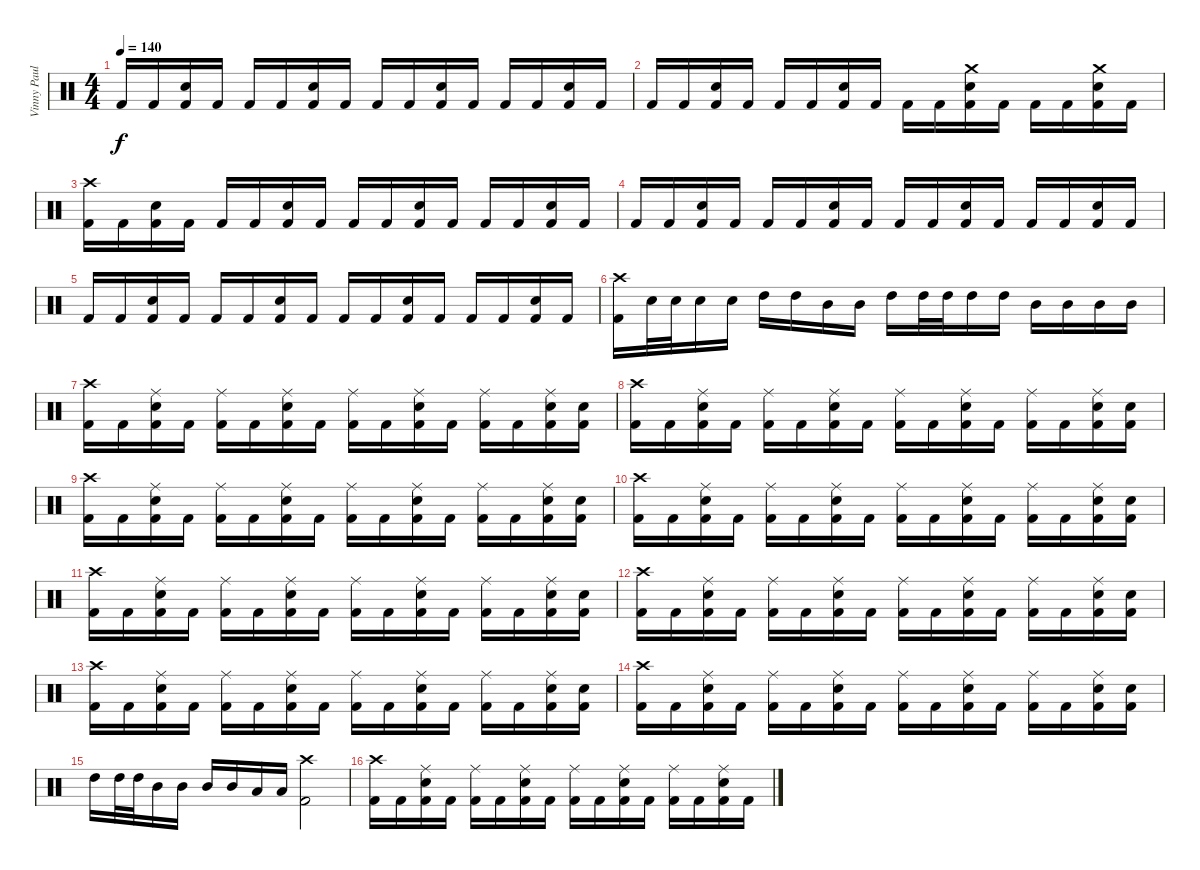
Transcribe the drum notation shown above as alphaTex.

\track ("Vinny Paul" "Vinny Paul") {instrument percussion}
\staff {score}
\articulation defaults
\ts (4 4)
\tempo 140
\clef neutral
\ks c "Kick (hit) 2".16{dy f} "Kick (hit) 2".16
("Snare (hit) 2" "Kick (hit) 2").16 "Kick (hit) 2".16 "Kick (hit) 2".16 "Kick (hit) 2".16 ("Snare (hit) 2" "Kick (hit) 2").16 "Kick (hit) 2".16 "Kick (hit) 2".16 "Kick (hit) 2".16 ("Snare (hit) 2" "Kick (hit) 2").16 "Kick (hit) 2".16 "Kick (hit) 2".16 "Kick (hit) 2".16 ("Snare (hit) 2" "Kick (hit) 2").16 "Kick (hit) 2".16 |
"Kick (hit) 2".16 "Kick (hit) 2".16 ("Snare (hit) 2" "Kick (hit) 2").16 "Kick (hit) 2".16 "Kick (hit) 2".16 "Kick (hit) 2".16 ("Snare (hit) 2" "Kick (hit) 2").16 "Kick (hit) 2".16 "Kick (hit) 2".16 "Kick (hit) 2".16 ("Crash medium (hit)" "Snare (hit) 2" "Kick (hit) 2").16 "Kick (hit) 2".16 "Kick (hit) 2".16 "Kick (hit) 2".16 ("Crash medium (hit)" "Snare (hit) 2" "Kick (hit) 2").16 "Kick (hit) 2".16 |
("Crash high (hit)" "Kick (hit) 2").16 "Kick (hit) 2".16 ("Snare (hit) 2" "Kick (hit) 2").16 "Kick (hit) 2".16 "Kick (hit) 2".16 "Kick (hit) 2".16 ("Snare (hit) 2" "Kick (hit) 2").16 "Kick (hit) 2".16 "Kick (hit) 2".16 "Kick (hit) 2".16 ("Snare (hit) 2" "Kick (hit) 2").16 "Kick (hit) 2".16 "Kick (hit) 2".16 "Kick (hit) 2".16 ("Snare (hit) 2" "Kick (hit) 2").16 "Kick (hit) 2".16 |
"Kick (hit) 2".16 "Kick (hit) 2".16 ("Snare (hit) 2" "Kick (hit) 2").16 "Kick (hit) 2".16 "Kick (hit) 2".16 "Kick (hit) 2".16 ("Snare (hit) 2" "Kick (hit) 2").16 "Kick (hit) 2".16 "Kick (hit) 2".16 "Kick (hit) 2".16 ("Snare (hit) 2" "Kick (hit) 2").16 "Kick (hit) 2".16 "Kick (hit) 2".16 "Kick (hit) 2".16 ("Snare (hit) 2" "Kick (hit) 2").16 "Kick (hit) 2".16 |
"Kick (hit) 2".16 "Kick (hit) 2".16 ("Snare (hit) 2" "Kick (hit) 2").16 "Kick (hit) 2".16 "Kick (hit) 2".16 "Kick (hit) 2".16 ("Snare (hit) 2" "Kick (hit) 2").16 "Kick (hit) 2".16 "Kick (hit) 2".16 "Kick (hit) 2".16 ("Snare (hit) 2" "Kick (hit) 2").16 "Kick (hit) 2".16 "Kick (hit) 2".16 "Kick (hit) 2".16 ("Snare (hit) 2" "Kick (hit) 2").16 "Kick (hit) 2".16 |
("Crash high (hit)" "Kick (hit) 2").16 "Snare (hit) 2".32 "Snare (hit) 2".32 "Snare (hit) 2".16 "Snare (hit) 2".16 "High Tom (hit)".16 "High Tom (hit)".16 "Mid Tom (hit)".16 "Mid Tom (hit)".16 "High Tom (hit)".16 "High Tom (hit)".32 "High Tom (hit)".32 "High Tom (hit)".16 "High Tom (hit)".16 "Mid Tom (hit)".16 "Mid Tom (hit)".16 "Mid Tom (hit)".16 "Mid Tom (hit)".16 |
("Crash high (hit)" "Kick (hit) 2").16 "Kick (hit) 2".16 ("Ride (middle)" "Snare (hit) 2" "Kick (hit) 2").16 "Kick (hit) 2".16 ("Ride (middle)" "Kick (hit) 2").16 "Kick (hit) 2".16 ("Ride (middle)" "Snare (hit) 2" "Kick (hit) 2").16 "Kick (hit) 2".16 ("Ride (middle)" "Kick (hit) 2").16 "Kick (hit) 2".16 ("Ride (middle)" "Snare (hit) 2" "Kick (hit) 2").16 "Kick (hit) 2".16 ("Ride (middle)" "Kick (hit) 2").16 "Kick (hit) 2".16 ("Ride (middle)" "Snare (hit) 2" "Kick (hit) 2").16 ("Snare (hit) 2" "Kick (hit) 2").16 |
("Crash high (hit)" "Kick (hit) 2").16 "Kick (hit) 2".16 ("Ride (middle)" "Snare (hit) 2" "Kick (hit) 2").16 "Kick (hit) 2".16 ("Ride (middle)" "Kick (hit) 2").16 "Kick (hit) 2".16 ("Ride (middle)" "Snare (hit) 2" "Kick (hit) 2").16 "Kick (hit) 2".16 ("Ride (middle)" "Kick (hit) 2").16 "Kick (hit) 2".16 ("Ride (middle)" "Snare (hit) 2" "Kick (hit) 2").16 "Kick (hit) 2".16 ("Ride (middle)" "Kick (hit) 2").16 "Kick (hit) 2".16 ("Ride (middle)" "Snare (hit) 2" "Kick (hit) 2").16 ("Snare (hit) 2" "Kick (hit) 2").16 |
("Crash high (hit)" "Kick (hit) 2").16 "Kick (hit) 2".16 ("Ride (middle)" "Snare (hit) 2" "Kick (hit) 2").16 "Kick (hit) 2".16 ("Ride (middle)" "Kick (hit) 2").16 "Kick (hit) 2".16 ("Ride (middle)" "Snare (hit) 2" "Kick (hit) 2").16 "Kick (hit) 2".16 ("Ride (middle)" "Kick (hit) 2").16 "Kick (hit) 2".16 ("Ride (middle)" "Snare (hit) 2" "Kick (hit) 2").16 "Kick (hit) 2".16 ("Ride (middle)" "Kick (hit) 2").16 "Kick (hit) 2".16 ("Ride (middle)" "Snare (hit) 2" "Kick (hit) 2").16 ("Snare (hit) 2" "Kick (hit) 2").16 |
("Crash high (hit)" "Kick (hit) 2").16 "Kick (hit) 2".16 ("Ride (middle)" "Snare (hit) 2" "Kick (hit) 2").16 "Kick (hit) 2".16 ("Ride (middle)" "Kick (hit) 2").16 "Kick (hit) 2".16 ("Ride (middle)" "Snare (hit) 2" "Kick (hit) 2").16 "Kick (hit) 2".16 ("Ride (middle)" "Kick (hit) 2").16 "Kick (hit) 2".16 ("Ride (middle)" "Snare (hit) 2" "Kick (hit) 2").16 "Kick (hit) 2".16 ("Ride (middle)" "Kick (hit) 2").16 "Kick (hit) 2".16 ("Ride (middle)" "Snare (hit) 2" "Kick (hit) 2").16 ("Snare (hit) 2" "Kick (hit) 2").16 |
("Crash high (hit)" "Kick (hit) 2").16 "Kick (hit) 2".16 ("Ride (middle)" "Snare (hit) 2" "Kick (hit) 2").16 "Kick (hit) 2".16 ("Ride (middle)" "Kick (hit) 2").16 "Kick (hit) 2".16 ("Ride (middle)" "Snare (hit) 2" "Kick (hit) 2").16 "Kick (hit) 2".16 ("Ride (middle)" "Kick (hit) 2").16 "Kick (hit) 2".16 ("Ride (middle)" "Snare (hit) 2" "Kick (hit) 2").16 "Kick (hit) 2".16 ("Ride (middle)" "Kick (hit) 2").16 "Kick (hit) 2".16 ("Ride (middle)" "Snare (hit) 2" "Kick (hit) 2").16 ("Snare (hit) 2" "Kick (hit) 2").16 |
("Crash high (hit)" "Kick (hit) 2").16 "Kick (hit) 2".16 ("Ride (middle)" "Snare (hit) 2" "Kick (hit) 2").16 "Kick (hit) 2".16 ("Ride (middle)" "Kick (hit) 2").16 "Kick (hit) 2".16 ("Ride (middle)" "Snare (hit) 2" "Kick (hit) 2").16 "Kick (hit) 2".16 ("Ride (middle)" "Kick (hit) 2").16 "Kick (hit) 2".16 ("Ride (middle)" "Snare (hit) 2" "Kick (hit) 2").16 "Kick (hit) 2".16 ("Ride (middle)" "Kick (hit) 2").16 "Kick (hit) 2".16 ("Ride (middle)" "Snare (hit) 2" "Kick (hit) 2").16 ("Snare (hit) 2" "Kick (hit) 2").16 |
("Crash high (hit)" "Kick (hit) 2").16 "Kick (hit) 2".16 ("Ride (middle)" "Snare (hit) 2" "Kick (hit) 2").16 "Kick (hit) 2".16 ("Ride (middle)" "Kick (hit) 2").16 "Kick (hit) 2".16 ("Ride (middle)" "Snare (hit) 2" "Kick (hit) 2").16 "Kick (hit) 2".16 ("Ride (middle)" "Kick (hit) 2").16 "Kick (hit) 2".16 ("Ride (middle)" "Snare (hit) 2" "Kick (hit) 2").16 "Kick (hit) 2".16 ("Ride (middle)" "Kick (hit) 2").16 "Kick (hit) 2".16 ("Ride (middle)" "Snare (hit) 2" "Kick (hit) 2").16 ("Snare (hit) 2" "Kick (hit) 2").16 |
("Crash high (hit)" "Kick (hit) 2").16 "Kick (hit) 2".16 ("Ride (middle)" "Snare (hit) 2" "Kick (hit) 2").16 "Kick (hit) 2".16 ("Ride (middle)" "Kick (hit) 2").16 "Kick (hit) 2".16 ("Ride (middle)" "Snare (hit) 2" "Kick (hit) 2").16 "Kick (hit) 2".16 ("Ride (middle)" "Kick (hit) 2").16 "Kick (hit) 2".16 ("Ride (middle)" "Snare (hit) 2" "Kick (hit) 2").16 "Kick (hit) 2".16 ("Ride (middle)" "Kick (hit) 2").16 "Kick (hit) 2".16 ("Ride (middle)" "Snare (hit) 2" "Kick (hit) 2").16 ("Snare (hit) 2" "Kick (hit) 2").16 |
"High Tom (hit)".16 "High Tom (hit)".32 "High Tom (hit)".32 "Mid Tom (hit)".16 "Mid Tom (hit)".16 "Mid Tom (hit)".16 "Mid Tom (hit)".16 "Low Tom (hit)".16 "Low Tom (hit)".16 ("Crash high (hit)" "Kick (hit) 2").2 |
("Crash high (hit)" "Kick (hit) 2").16 "Kick (hit) 2".16 ("Ride (middle)" "Snare (hit) 2" "Kick (hit) 2").16 "Kick (hit) 2".16 ("Ride (middle)" "Kick (hit) 2").16 "Kick (hit) 2".16 ("Ride (middle)" "Snare (hit) 2" "Kick (hit) 2").16 "Kick (hit) 2".16 ("Ride (middle)" "Kick (hit) 2").16 "Kick (hit) 2".16 ("Ride (middle)" "Snare (hit) 2" "Kick (hit) 2").16 "Kick (hit) 2".16 ("Ride (middle)" "Kick (hit) 2").16 "Kick (hit) 2".16 ("Ride (middle)" "Snare (hit) 2" "Kick (hit) 2").16 "Kick (hit) 2".16
